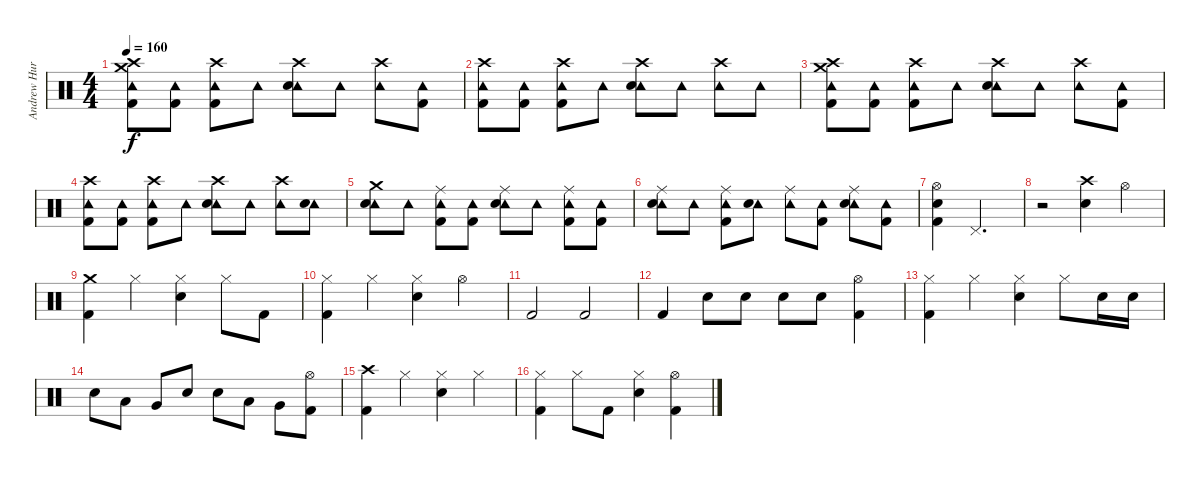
\track ("Andrew Hurley (Drums)" "Andrew Hur") {instrument percussion}
\staff {score}
\articulation defaults
\ts (4 4)
\tempo 160
\clef neutral
\ks c
("Crash high (hit)" "Crash medium (hit)" "Tambourine (hit)" "Kick (hit) 2").8{dy f} ("Tambourine (hit)" "Kick (hit) 2").8 ("Crash high (hit)" "Tambourine (hit)" "Kick (hit) 2").8 "Tambourine (hit)".8 ("Crash high (hit)" "Tambourine (hit)" "Snare (hit) 2").8 "Tambourine (hit)".8 ("Crash high (hit)" "Tambourine (hit)").8 ("Tambourine (hit)" "Kick (hit) 2").8 |
("Crash high (hit)" "Tambourine (hit)" "Kick (hit) 2").8 ("Tambourine (hit)" "Kick (hit) 2").8 ("Crash high (hit)" "Tambourine (hit)" "Kick (hit) 2").8 "Tambourine (hit)".8 ("Crash high (hit)" "Tambourine (hit)" "Snare (hit) 2").8 "Tambourine (hit)".8 ("Crash high (hit)" "Tambourine (hit)").8 "Tambourine (hit)".8 |
("Crash high (hit)" "Crash medium (hit)" "Tambourine (hit)" "Kick (hit) 2").8 ("Tambourine (hit)" "Kick (hit) 2").8 ("Crash high (hit)" "Tambourine (hit)" "Kick (hit) 2").8 "Tambourine (hit)".8 ("Crash high (hit)" "Tambourine (hit)" "Snare (hit) 2").8 "Tambourine (hit)".8 ("Crash high (hit)" "Tambourine (hit)").8 ("Tambourine (hit)" "Kick (hit) 2").8 |
("Crash high (hit)" "Tambourine (hit)" "Kick (hit) 2").8 ("Tambourine (hit)" "Kick (hit) 2").8 ("Crash high (hit)" "Tambourine (hit)" "Kick (hit) 2").8 "Tambourine (hit)".8 ("Crash high (hit)" "Tambourine (hit)" "Snare (hit) 2").8 "Tambourine (hit)".8 ("Crash high (hit)" "Tambourine (hit)").8 ("Tambourine (hit)" "Snare (hit) 2").8 |
("Crash medium (hit)" "Tambourine (hit)" "Snare (hit) 2").8 "Tambourine (hit)".8 ("Ride (middle)" "Tambourine (hit)" "Kick (hit) 2").8 ("Tambourine (hit)" "Kick (hit) 2").8 ("Ride (middle)" "Tambourine (hit)" "Snare (hit) 2").8 "Tambourine (hit)".8 ("Ride (middle)" "Tambourine (hit)" "Kick (hit) 2").8 ("Tambourine (hit)" "Kick (hit) 2").8 |
("Ride (middle)" "Tambourine (hit)" "Snare (hit) 2").8 "Tambourine (hit)".8 ("Ride (middle)" "Tambourine (hit)" "Kick (hit) 2").8 ("Tambourine (hit)" "Snare (hit) 2").8 ("Ride (middle)" "Tambourine (hit)").8 ("Tambourine (hit)" "Kick (hit) 2").8 ("Ride (middle)" "Tambourine (hit)" "Snare (hit) 2").8 ("Tambourine (hit)" "Kick (hit) 2").8 |
("Hi-Hat (open)" "Snare (hit) 2" "Kick (hit) 2").4 "Pedal Hi-Hat (hit)".2{d} |
r.2 ("Crash high (hit)" "Snare (hit) 2").4 "Hi-Hat (open)".4 |
("Crash medium (hit)" "Kick (hit) 2").4 "Hi-Hat (closed)".4 ("Hi-Hat (closed)" "Snare (hit) 2").4 "Hi-Hat (closed)".8 "Kick (hit) 2".8 |
("Hi-Hat (closed)" "Kick (hit) 2").4 "Hi-Hat (closed)".4 ("Hi-Hat (closed)" "Snare (hit) 2").4 "Hi-Hat (open)".4 |
"Kick (hit) 2".2 "Kick (hit) 2".2 |
"Kick (hit) 2".4 "Snare (hit) 2".8 "Snare (hit) 2".8 "Snare (hit) 2".8 "Snare (hit) 2".8 ("Hi-Hat (open)" "Kick (hit) 2").4 |
("Hi-Hat (closed)" "Kick (hit) 2").4 "Hi-Hat (closed)".4 ("Hi-Hat (closed)" "Snare (hit) 2").4 "Hi-Hat (closed)".8 "Snare (hit) 2".16 "Snare (hit) 2".16 |
"Snare (hit) 2".8 "Low Tom (hit)".8 "Very Low Tom (hit)".8 "Snare (hit) 2".8 "Snare (hit) 2".8 "Low Tom (hit)".8 "Very Low Tom (hit)".8 ("Hi-Hat (open)" "Kick (hit) 2").8 |
("Crash high (hit)" "Kick (hit) 2").4 "Hi-Hat (closed)".4 ("Hi-Hat (closed)" "Snare (hit) 2").4 "Hi-Hat (closed)".4 |
("Hi-Hat (closed)" "Kick (hit) 2").4 "Hi-Hat (closed)".8 "Kick (hit) 2".8 ("Hi-Hat (closed)" "Snare (hit) 2").4 ("Hi-Hat (open)" "Kick (hit) 2").4
